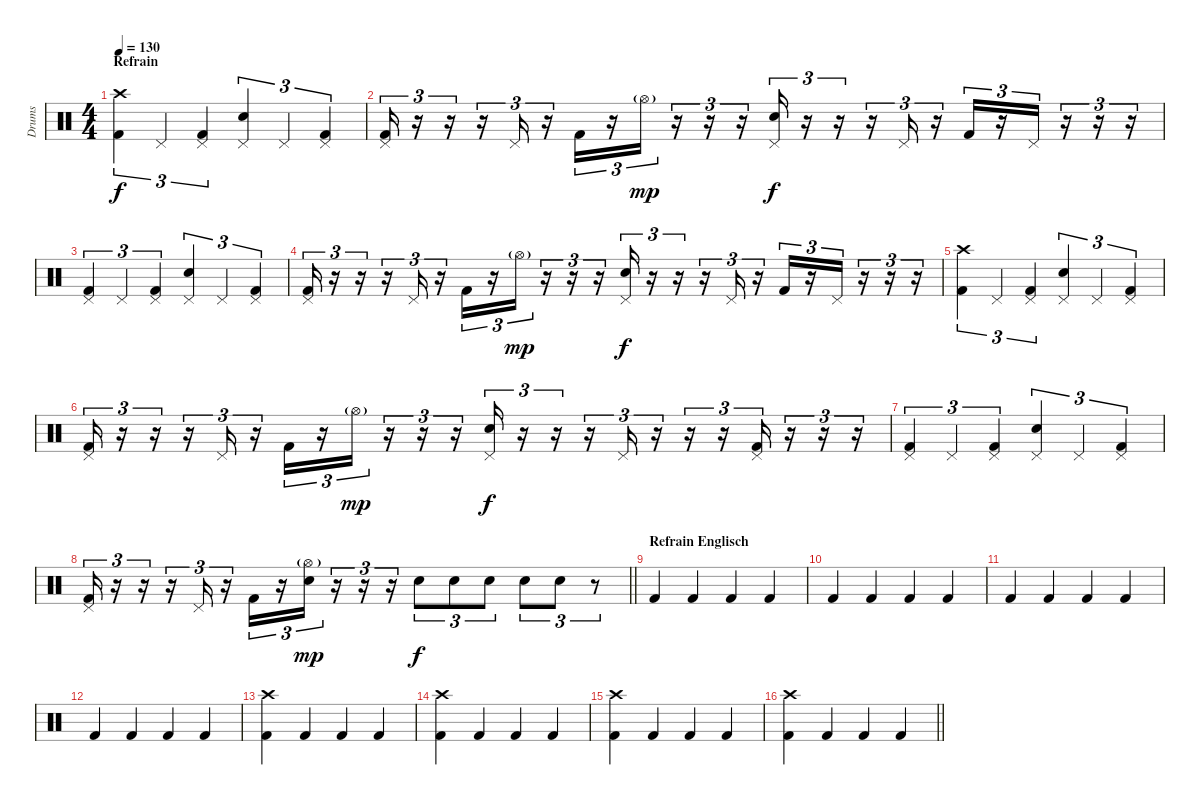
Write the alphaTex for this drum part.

\track ("Drums" "Drums") {instrument percussion}
\staff {score}
\articulation defaults
\ts (4 4)
\section ("" "Refrain")
\tempo 130
\clef neutral
\ks c
("Crash high (hit)" "Kick (hit) 2").4{tu (3 2) dy f} "Pedal Hi-Hat (hit)".4{tu (3 2)} ("Pedal Hi-Hat (hit)" "Kick (hit) 2").4{tu (3 2)} ("Pedal Hi-Hat (hit)" "Snare (hit) 2").4{tu (3 2)} "Pedal Hi-Hat (hit)".4{tu (3 2)} ("Pedal Hi-Hat (hit)" "Kick (hit) 2").4{tu (3 2)} |
("Pedal Hi-Hat (hit)" "Kick (hit) 2").16{tu (3 2)} r.16{tu (3 2)} r.16{tu (3 2)} r.16{tu (3 2)} "Pedal Hi-Hat (hit)".16{tu (3 2)} r.16{tu (3 2)} "Kick (hit) 2".16{tu (3 2)} r.16{tu (3 2)} "Hi-Hat (open)"{g}.16{tu (3 2) dy mp} r.16{tu (3 2)} r.16{tu (3 2)} r.16{tu (3 2)} ("Pedal Hi-Hat (hit)" "Snare (hit) 2").16{tu (3 2) dy f} r.16{tu (3 2)} r.16{tu (3 2)} r.16{tu (3 2)} "Pedal Hi-Hat (hit)".16{tu (3 2)} r.16{tu (3 2)} "Kick (hit) 2".16{tu (3 2)} r.16{tu (3 2)} "Pedal Hi-Hat (hit)".16{tu (3 2)} r.16{tu (3 2)} r.16{tu (3 2)} r.16{tu (3 2)} |
("Pedal Hi-Hat (hit)" "Kick (hit) 2").4{tu (3 2)} "Pedal Hi-Hat (hit)".4{tu (3 2)} ("Pedal Hi-Hat (hit)" "Kick (hit) 2").4{tu (3 2)} ("Pedal Hi-Hat (hit)" "Snare (hit) 2").4{tu (3 2)} "Pedal Hi-Hat (hit)".4{tu (3 2)} ("Pedal Hi-Hat (hit)" "Kick (hit) 2").4{tu (3 2)} |
("Pedal Hi-Hat (hit)" "Kick (hit) 2").16{tu (3 2)} r.16{tu (3 2)} r.16{tu (3 2)} r.16{tu (3 2)} "Pedal Hi-Hat (hit)".16{tu (3 2)} r.16{tu (3 2)} "Kick (hit) 2".16{tu (3 2)} r.16{tu (3 2)} "Hi-Hat (open)"{g}.16{tu (3 2) dy mp} r.16{tu (3 2)} r.16{tu (3 2)} r.16{tu (3 2)} ("Pedal Hi-Hat (hit)" "Snare (hit) 2").16{tu (3 2) dy f} r.16{tu (3 2)} r.16{tu (3 2)} r.16{tu (3 2)} "Pedal Hi-Hat (hit)".16{tu (3 2)} r.16{tu (3 2)} "Kick (hit) 2".16{tu (3 2)} r.16{tu (3 2)} "Pedal Hi-Hat (hit)".16{tu (3 2)} r.16{tu (3 2)} r.16{tu (3 2)} r.16{tu (3 2)} |
("Crash high (hit)" "Kick (hit) 2").4{tu (3 2)} "Pedal Hi-Hat (hit)".4{tu (3 2)} ("Pedal Hi-Hat (hit)" "Kick (hit) 2").4{tu (3 2)} ("Pedal Hi-Hat (hit)" "Snare (hit) 2").4{tu (3 2)} "Pedal Hi-Hat (hit)".4{tu (3 2)} ("Pedal Hi-Hat (hit)" "Kick (hit) 2").4{tu (3 2)} |
("Pedal Hi-Hat (hit)" "Kick (hit) 2").16{tu (3 2)} r.16{tu (3 2)} r.16{tu (3 2)} r.16{tu (3 2)} "Pedal Hi-Hat (hit)".16{tu (3 2)} r.16{tu (3 2)} "Kick (hit) 2".16{tu (3 2)} r.16{tu (3 2)} "Hi-Hat (open)"{g}.16{tu (3 2) dy mp} r.16{tu (3 2)} r.16{tu (3 2)} r.16{tu (3 2)} ("Pedal Hi-Hat (hit)" "Snare (hit) 2").16{tu (3 2) dy f} r.16{tu (3 2)} r.16{tu (3 2)} r.16{tu (3 2)} "Pedal Hi-Hat (hit)".16{tu (3 2)} r.16{tu (3 2)} r.16{tu (3 2)} r.16{tu (3 2)} ("Pedal Hi-Hat (hit)" "Kick (hit) 2").16{tu (3 2)} r.16{tu (3 2)} r.16{tu (3 2)} r.16{tu (3 2)} |
("Pedal Hi-Hat (hit)" "Kick (hit) 2").4{tu (3 2)} "Pedal Hi-Hat (hit)".4{tu (3 2)} ("Pedal Hi-Hat (hit)" "Kick (hit) 2").4{tu (3 2)} ("Pedal Hi-Hat (hit)" "Snare (hit) 2").4{tu (3 2)} "Pedal Hi-Hat (hit)".4{tu (3 2)} ("Pedal Hi-Hat (hit)" "Kick (hit) 2").4{tu (3 2)} |
\barLineRight lightlight
("Pedal Hi-Hat (hit)" "Kick (hit) 2").16{tu (3 2)} r.16{tu (3 2)} r.16{tu (3 2)} r.16{tu (3 2)} "Pedal Hi-Hat (hit)".16{tu (3 2)} r.16{tu (3 2)} "Kick (hit) 2".16{tu (3 2)} r.16{tu (3 2)} ("Hi-Hat (open)"{g} "Snare (hit) 2").16{tu (3 2) dy mp} r.16{tu (3 2)} r.16{tu (3 2)} r.16{tu (3 2)} "Snare (hit) 2".8{tu (3 2) dy f} "Snare (hit) 2".8{tu (3 2)} "Snare (hit) 2".8{tu (3 2)} "Snare (hit) 2".8{tu (3 2)} "Snare (hit) 2".8{tu (3 2)} r.8{tu (3 2)} |
\section ("" "Refrain Englisch")
"Kick (hit) 2".4 "Kick (hit) 2".4 "Kick (hit) 2".4 "Kick (hit) 2".4 |
"Kick (hit) 2".4 "Kick (hit) 2".4 "Kick (hit) 2".4 "Kick (hit) 2".4 |
"Kick (hit) 2".4 "Kick (hit) 2".4 "Kick (hit) 2".4 "Kick (hit) 2".4 |
"Kick (hit) 2".4 "Kick (hit) 2".4 "Kick (hit) 2".4 "Kick (hit) 2".4 |
("Crash high (hit)" "Kick (hit) 2").4 "Kick (hit) 2".4 "Kick (hit) 2".4 "Kick (hit) 2".4 |
("Crash high (hit)" "Kick (hit) 2").4 "Kick (hit) 2".4 "Kick (hit) 2".4 "Kick (hit) 2".4 |
("Crash high (hit)" "Kick (hit) 2").4 "Kick (hit) 2".4 "Kick (hit) 2".4 "Kick (hit) 2".4 |
\barLineRight lightlight
("Crash high (hit)" "Kick (hit) 2").4 "Kick (hit) 2".4 "Kick (hit) 2".4 "Kick (hit) 2".4
